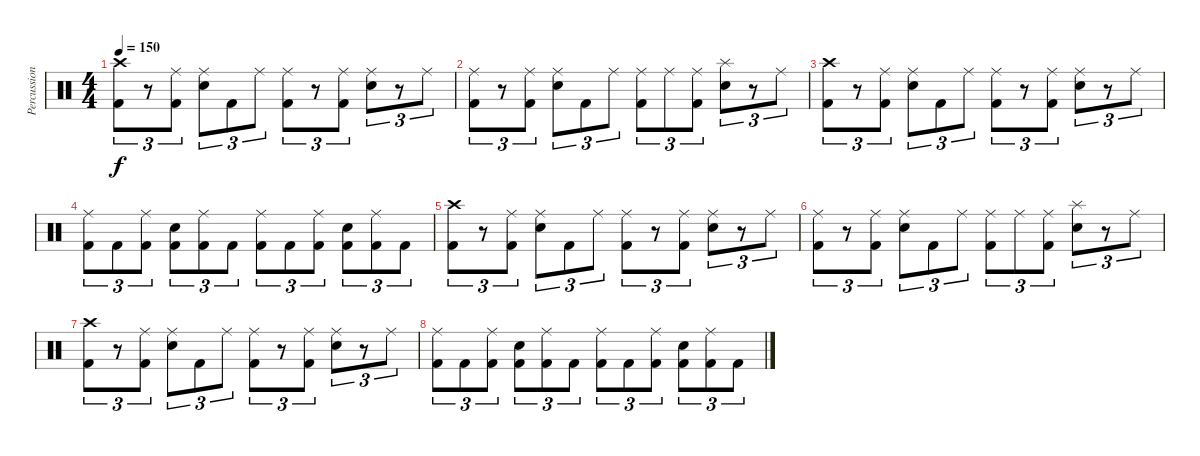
\track ("Percussion" "Percussion") {instrument percussion}
\staff {score}
\articulation defaults
\ts (4 4)
\tempo 150
\clef neutral
\ks c
("Crash high (hit)" "Kick (hit) 2").8{tu (3 2) dy f} r.8{tu (3 2)} ("Ride (middle)" "Kick (hit) 2").8{tu (3 2)} ("Ride (middle)" "Snare (hit) 2").8{tu (3 2)} "Kick (hit) 2".8{tu (3 2)} "Ride (middle)".8{tu (3 2)} ("Ride (middle)" "Kick (hit) 2").8{tu (3 2)} r.8{tu (3 2)} ("Ride (middle)" "Kick (hit) 2").8{tu (3 2)} ("Ride (middle)" "Snare (hit) 2").8{tu (3 2)} r.8{tu (3 2)} "Ride (middle)".8{tu (3 2)} |
("Ride (middle)" "Kick (hit) 2").8{tu (3 2)} r.8{tu (3 2)} ("Ride (middle)" "Kick (hit) 2").8{tu (3 2)} ("Ride (middle)" "Snare (hit) 2").8{tu (3 2)} "Kick (hit) 2".8{tu (3 2)} "Ride (middle)".8{tu (3 2)} ("Ride (middle)" "Kick (hit) 2").8{tu (3 2)} "Ride (middle)".8{tu (3 2)} ("Ride (middle)" "Kick (hit) 2").8{tu (3 2)} ("Splash (hit)" "Snare (hit) 2").8{tu (3 2)} r.8{tu (3 2)} "Ride (middle)".8{tu (3 2)} |
("Crash high (hit)" "Kick (hit) 2").8{tu (3 2)} r.8{tu (3 2)} ("Ride (middle)" "Kick (hit) 2").8{tu (3 2)} ("Ride (middle)" "Snare (hit) 2").8{tu (3 2)} "Kick (hit) 2".8{tu (3 2)} "Ride (middle)".8{tu (3 2)} ("Ride (middle)" "Kick (hit) 2").8{tu (3 2)} r.8{tu (3 2)} ("Ride (middle)" "Kick (hit) 2").8{tu (3 2)} ("Ride (middle)" "Snare (hit) 2").8{tu (3 2)} r.8{tu (3 2)} "Ride (middle)".8{tu (3 2)} |
("Ride (middle)" "Kick (hit) 2").8{tu (3 2)} "Kick (hit) 2".8{tu (3 2)} ("Ride (middle)" "Kick (hit) 2").8{tu (3 2)} ("Snare (hit) 2" "Kick (hit) 2").8{tu (3 2)} ("Ride (middle)" "Kick (hit) 2").8{tu (3 2)} "Kick (hit) 2".8{tu (3 2)} ("Ride (middle)" "Kick (hit) 2").8{tu (3 2)} "Kick (hit) 2".8{tu (3 2)} ("Ride (middle)" "Kick (hit) 2").8{tu (3 2)} ("Snare (hit) 2" "Kick (hit) 2").8{tu (3 2)} ("Ride (middle)" "Kick (hit) 2").8{tu (3 2)} "Kick (hit) 2".8{tu (3 2)} |
("Crash high (hit)" "Kick (hit) 2").8{tu (3 2)} r.8{tu (3 2)} ("Ride (middle)" "Kick (hit) 2").8{tu (3 2)} ("Ride (middle)" "Snare (hit) 2").8{tu (3 2)} "Kick (hit) 2".8{tu (3 2)} "Ride (middle)".8{tu (3 2)} ("Ride (middle)" "Kick (hit) 2").8{tu (3 2)} r.8{tu (3 2)} ("Ride (middle)" "Kick (hit) 2").8{tu (3 2)} ("Ride (middle)" "Snare (hit) 2").8{tu (3 2)} r.8{tu (3 2)} "Ride (middle)".8{tu (3 2)} |
("Ride (middle)" "Kick (hit) 2").8{tu (3 2)} r.8{tu (3 2)} ("Ride (middle)" "Kick (hit) 2").8{tu (3 2)} ("Ride (middle)" "Snare (hit) 2").8{tu (3 2)} "Kick (hit) 2".8{tu (3 2)} "Ride (middle)".8{tu (3 2)} ("Ride (middle)" "Kick (hit) 2").8{tu (3 2)} "Ride (middle)".8{tu (3 2)} ("Ride (middle)" "Kick (hit) 2").8{tu (3 2)} ("Splash (hit)" "Snare (hit) 2").8{tu (3 2)} r.8{tu (3 2)} "Ride (middle)".8{tu (3 2)} |
("Crash high (hit)" "Kick (hit) 2").8{tu (3 2)} r.8{tu (3 2)} ("Ride (middle)" "Kick (hit) 2").8{tu (3 2)} ("Ride (middle)" "Snare (hit) 2").8{tu (3 2)} "Kick (hit) 2".8{tu (3 2)} "Ride (middle)".8{tu (3 2)} ("Ride (middle)" "Kick (hit) 2").8{tu (3 2)} r.8{tu (3 2)} ("Ride (middle)" "Kick (hit) 2").8{tu (3 2)} ("Ride (middle)" "Snare (hit) 2").8{tu (3 2)} r.8{tu (3 2)} "Ride (middle)".8{tu (3 2)} |
("Ride (middle)" "Kick (hit) 2").8{tu (3 2)} "Kick (hit) 2".8{tu (3 2)} ("Ride (middle)" "Kick (hit) 2").8{tu (3 2)} ("Snare (hit) 2" "Kick (hit) 2").8{tu (3 2)} ("Ride (middle)" "Kick (hit) 2").8{tu (3 2)} "Kick (hit) 2".8{tu (3 2)} ("Ride (middle)" "Kick (hit) 2").8{tu (3 2)} "Kick (hit) 2".8{tu (3 2)} ("Ride (middle)" "Kick (hit) 2").8{tu (3 2)} ("Snare (hit) 2" "Kick (hit) 2").8{tu (3 2)} ("Ride (middle)" "Kick (hit) 2").8{tu (3 2)} "Kick (hit) 2".8{tu (3 2)}
